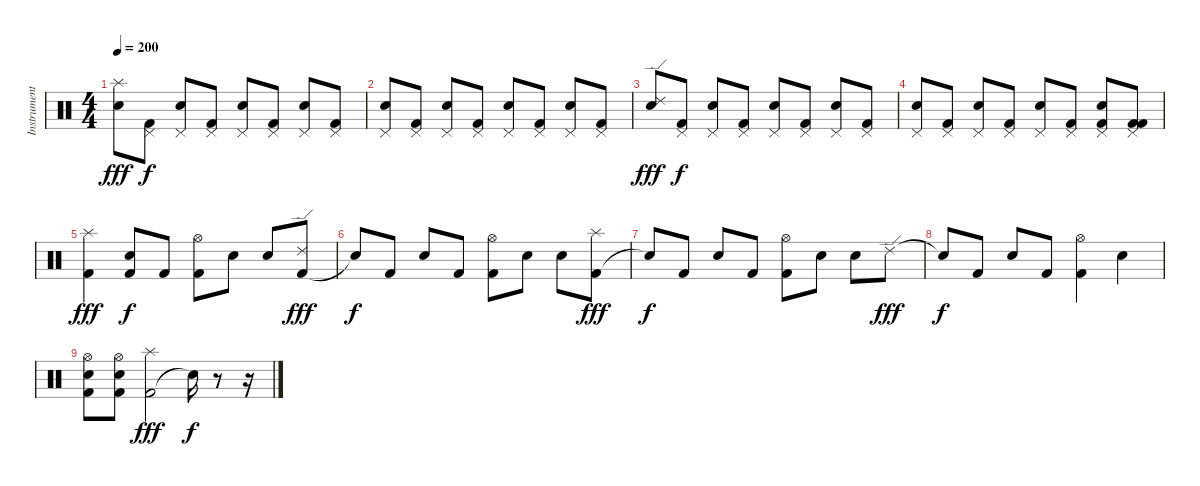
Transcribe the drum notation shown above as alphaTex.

\track ("Instrument 03" "Instrument") {instrument percussion}
\staff {score}
\articulation defaults
\ts (4 4)
\tempo 200
\clef neutral
\ks c
("Snare (hit) 2" "Splash (hit)").8{dy fff} ("Kick (hit) 2" "Pedal Hi-Hat (hit)").8{dy f} ("Snare (hit) 2" "Pedal Hi-Hat (hit)").8 ("Kick (hit) 2" "Pedal Hi-Hat (hit)").8 ("Snare (hit) 2" "Pedal Hi-Hat (hit)").8 ("Kick (hit) 2" "Pedal Hi-Hat (hit)").8 ("Snare (hit) 2" "Pedal Hi-Hat (hit)").8 ("Kick (hit) 2" "Pedal Hi-Hat (hit)").8 |
("Snare (hit) 2" "Pedal Hi-Hat (hit)").8 ("Kick (hit) 2" "Pedal Hi-Hat (hit)").8 ("Snare (hit) 2" "Pedal Hi-Hat (hit)").8 ("Kick (hit) 2" "Pedal Hi-Hat (hit)").8 ("Snare (hit) 2" "Pedal Hi-Hat (hit)").8 ("Kick (hit) 2" "Pedal Hi-Hat (hit)").8 ("Snare (hit) 2" "Pedal Hi-Hat (hit)").8 ("Kick (hit) 2" "Pedal Hi-Hat (hit)").8 |
("Snare (hit) 2" "Ride (edge) 2").8{dy fff} ("Kick (hit) 2" "Pedal Hi-Hat (hit)").8{dy f} ("Snare (hit) 2" "Pedal Hi-Hat (hit)").8 ("Kick (hit) 2" "Pedal Hi-Hat (hit)").8 ("Snare (hit) 2" "Pedal Hi-Hat (hit)").8 ("Kick (hit) 2" "Pedal Hi-Hat (hit)").8 ("Snare (hit) 2" "Pedal Hi-Hat (hit)").8 ("Kick (hit) 2" "Pedal Hi-Hat (hit)").8 |
("Snare (hit) 2" "Pedal Hi-Hat (hit)").8 ("Kick (hit) 2" "Pedal Hi-Hat (hit)").8 ("Snare (hit) 2" "Pedal Hi-Hat (hit)").8 ("Kick (hit) 2" "Pedal Hi-Hat (hit)").8 ("Snare (hit) 2" "Pedal Hi-Hat (hit)").8 ("Kick (hit) 2" "Pedal Hi-Hat (hit)").8 ("Kick (hit) 2" "Snare (hit) 2" "Pedal Hi-Hat (hit)").8 ("Kick (hit) 2" "Kick (hit) 2" "Pedal Hi-Hat (hit)").8 |
("Kick (hit) 2" "Splash (hit)").4{dy fff} ("Kick (hit) 2" "Snare (hit) 2").8{dy f} "Kick (hit) 2".8 ("Kick (hit) 2" "Hi-Hat (open)").8 "Snare (hit) 2".8 "Snare (hit) 2".8 ("Kick (hit) 2" "Ride (edge) 2").8{dy fff} |
"Snare (hit)"{t}.8{dy f} "Kick (hit) 2".8 "Snare (hit) 2".8 "Kick (hit) 2".8 ("Kick (hit) 2" "Hi-Hat (open)").8 "Snare (hit) 2".8 "Snare (hit) 2".8 ("Kick (hit) 2" "Splash (hit)").8{dy fff} |
"Snare (hit)"{t}.8{dy f} "Kick (hit) 2".8 "Snare (hit) 2".8 "Kick (hit) 2".8 ("Kick (hit) 2" "Hi-Hat (open)").8 "Snare (hit) 2".8 "Snare (hit) 2".8 "Ride (edge) 2".8{dy fff} |
"Snare (hit)"{t}.8{dy f} "Kick (hit) 2".8 "Snare (hit) 2".8 "Kick (hit) 2".8 ("Kick (hit) 2" "Hi-Hat (open)").4 "Snare (hit) 2".4 |
("Kick (hit) 2" "Snare (hit) 2" "Hi-Hat (open)").8 ("Kick (hit) 2" "Snare (hit) 2" "Hi-Hat (open)").8 ("Kick (hit) 2" "Splash (hit)").2{dy fff} "Snare (hit)"{t}.16{dy f} r.8 r.16
